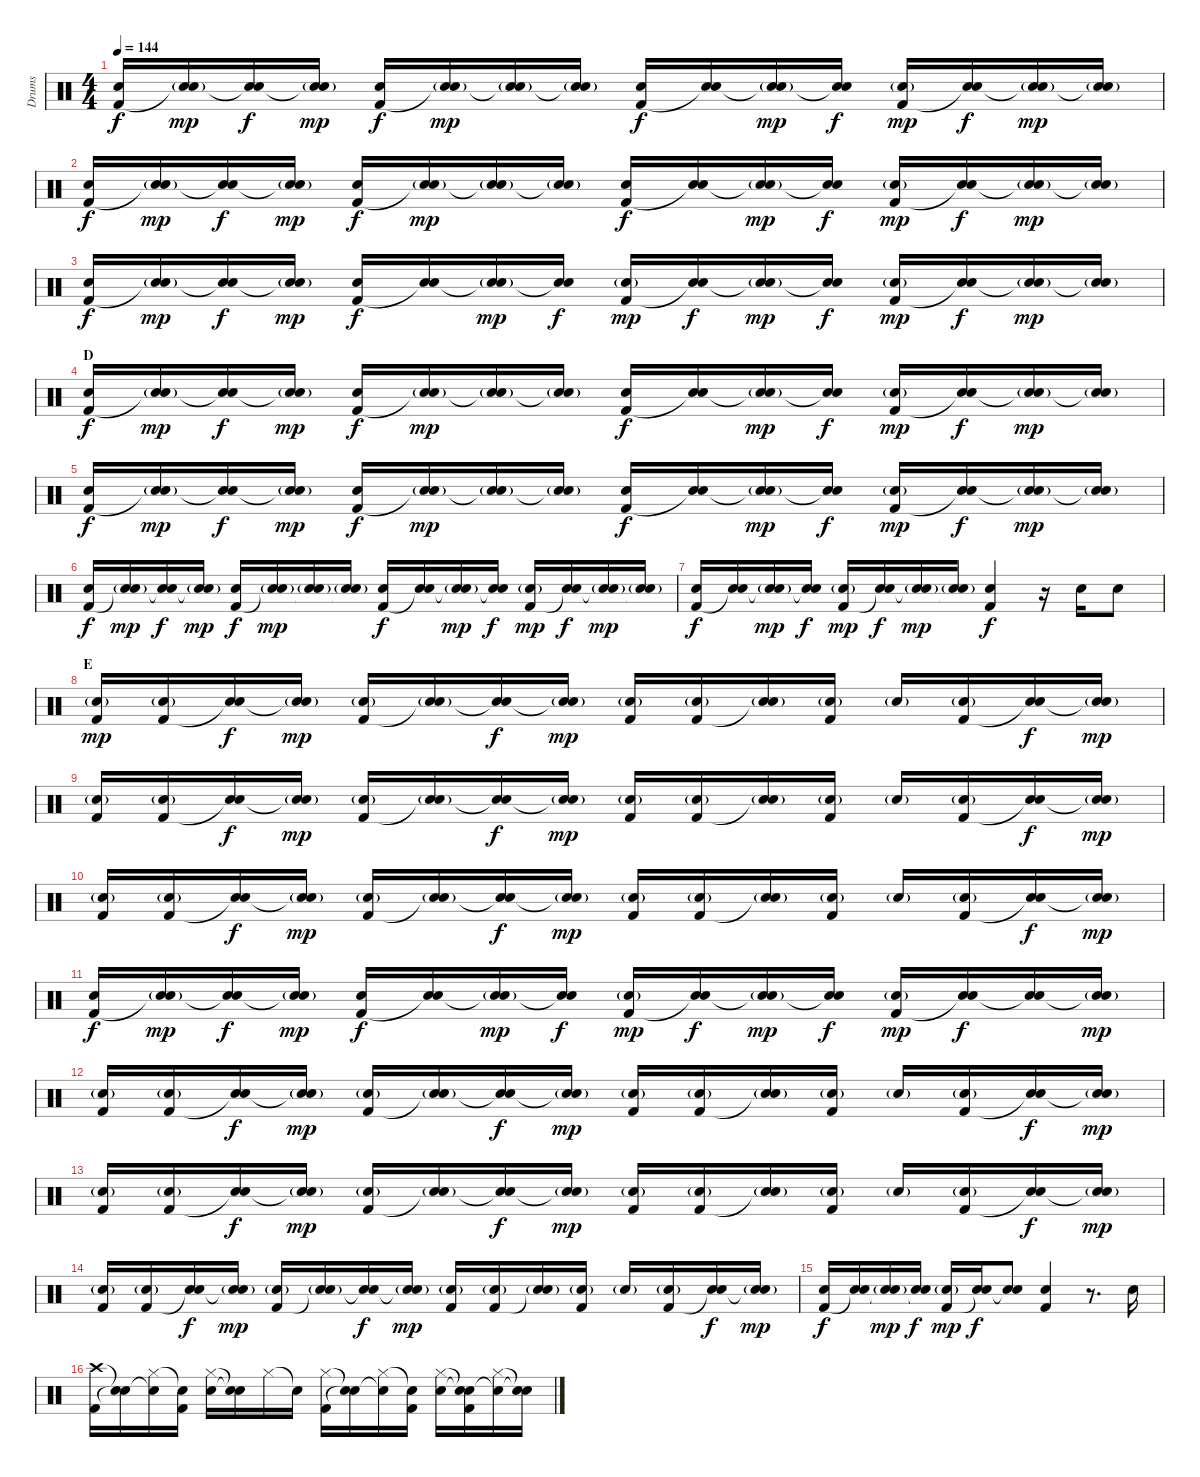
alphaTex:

\track ("Drums" "Drums") {instrument percussion}
\staff {score}
\articulation defaults
\ts (4 4)
\tempo 144
\clef neutral
\ks c
("Snare (hit) 2" "Kick (hit) 2").16{dy f} ("Snare (hit) 2"{g} "Snare (hit)"{t}).16{dy mp} ("Snare (hit) 2" "Snare (hit)"{t}).16{dy f} ("Snare (hit) 2"{g} "Snare (hit)"{t}).16{dy mp} ("Snare (hit) 2" "Kick (hit) 2").16{dy f} ("Snare (hit) 2"{g} "Snare (hit)"{t}).16{dy mp} ("Snare (hit) 2"{g} "Snare (hit)"{t}).16 ("Snare (hit) 2"{g} "Snare (hit)"{t}).16 ("Snare (hit) 2" "Kick (hit) 2").16{dy f} ("Snare (hit) 2" "Snare (hit)"{t}).16 ("Snare (hit) 2"{g} "Snare (hit)"{t}).16{dy mp} ("Snare (hit) 2" "Snare (hit)"{t}).16{dy f} ("Snare (hit) 2"{g} "Kick (hit) 2").16{dy mp} ("Snare (hit) 2" "Snare (hit)"{t}).16{dy f} ("Snare (hit) 2"{g} "Snare (hit)"{t}).16{dy mp} ("Snare (hit) 2"{g} "Snare (hit)"{t}).16 |
("Snare (hit) 2" "Kick (hit) 2").16{dy f} ("Snare (hit) 2"{g} "Snare (hit)"{t}).16{dy mp} ("Snare (hit) 2" "Snare (hit)"{t}).16{dy f} ("Snare (hit) 2"{g} "Snare (hit)"{t}).16{dy mp} ("Snare (hit) 2" "Kick (hit) 2").16{dy f} ("Snare (hit) 2"{g} "Snare (hit)"{t}).16{dy mp} ("Snare (hit) 2"{g} "Snare (hit)"{t}).16 ("Snare (hit) 2"{g} "Snare (hit)"{t}).16 ("Snare (hit) 2" "Kick (hit) 2").16{dy f} ("Snare (hit) 2" "Snare (hit)"{t}).16 ("Snare (hit) 2"{g} "Snare (hit)"{t}).16{dy mp} ("Snare (hit) 2" "Snare (hit)"{t}).16{dy f} ("Snare (hit) 2"{g} "Kick (hit) 2").16{dy mp} ("Snare (hit) 2" "Snare (hit)"{t}).16{dy f} ("Snare (hit) 2"{g} "Snare (hit)"{t}).16{dy mp} ("Snare (hit) 2"{g} "Snare (hit)"{t}).16 |
("Snare (hit) 2" "Kick (hit) 2").16{dy f} ("Snare (hit) 2"{g} "Snare (hit)"{t}).16{dy mp} ("Snare (hit) 2" "Snare (hit)"{t}).16{dy f} ("Snare (hit) 2"{g} "Snare (hit)"{t}).16{dy mp} ("Snare (hit) 2" "Kick (hit) 2").16{dy f} ("Snare (hit) 2" "Snare (hit)"{t}).16 ("Snare (hit) 2"{g} "Snare (hit)"{t}).16{dy mp} ("Snare (hit) 2" "Snare (hit)"{t}).16{dy f} ("Snare (hit) 2"{g} "Kick (hit) 2").16{dy mp} ("Snare (hit) 2" "Snare (hit)"{t}).16{dy f} ("Snare (hit) 2"{g} "Snare (hit)"{t}).16{dy mp} ("Snare (hit) 2" "Snare (hit)"{t}).16{dy f} ("Snare (hit) 2"{g} "Kick (hit) 2").16{dy mp} ("Snare (hit) 2" "Snare (hit)"{t}).16{dy f} ("Snare (hit) 2"{g} "Snare (hit)"{t}).16{dy mp} ("Snare (hit) 2"{g} "Snare (hit)"{t}).16 |
\section ("" "D")
("Snare (hit) 2" "Kick (hit) 2").16{dy f} ("Snare (hit) 2"{g} "Snare (hit)"{t}).16{dy mp} ("Snare (hit) 2" "Snare (hit)"{t}).16{dy f} ("Snare (hit) 2"{g} "Snare (hit)"{t}).16{dy mp} ("Snare (hit) 2" "Kick (hit) 2").16{dy f} ("Snare (hit) 2"{g} "Snare (hit)"{t}).16{dy mp} ("Snare (hit) 2"{g} "Snare (hit)"{t}).16 ("Snare (hit) 2"{g} "Snare (hit)"{t}).16 ("Snare (hit) 2" "Kick (hit) 2").16{dy f} ("Snare (hit) 2" "Snare (hit)"{t}).16 ("Snare (hit) 2"{g} "Snare (hit)"{t}).16{dy mp} ("Snare (hit) 2" "Snare (hit)"{t}).16{dy f} ("Snare (hit) 2"{g} "Kick (hit) 2").16{dy mp} ("Snare (hit) 2" "Snare (hit)"{t}).16{dy f} ("Snare (hit) 2"{g} "Snare (hit)"{t}).16{dy mp} ("Snare (hit) 2"{g} "Snare (hit)"{t}).16 |
("Snare (hit) 2" "Kick (hit) 2").16{dy f} ("Snare (hit) 2"{g} "Snare (hit)"{t}).16{dy mp} ("Snare (hit) 2" "Snare (hit)"{t}).16{dy f} ("Snare (hit) 2"{g} "Snare (hit)"{t}).16{dy mp} ("Snare (hit) 2" "Kick (hit) 2").16{dy f} ("Snare (hit) 2"{g} "Snare (hit)"{t}).16{dy mp} ("Snare (hit) 2"{g} "Snare (hit)"{t}).16 ("Snare (hit) 2"{g} "Snare (hit)"{t}).16 ("Snare (hit) 2" "Kick (hit) 2").16{dy f} ("Snare (hit) 2" "Snare (hit)"{t}).16 ("Snare (hit) 2"{g} "Snare (hit)"{t}).16{dy mp} ("Snare (hit) 2" "Snare (hit)"{t}).16{dy f} ("Snare (hit) 2"{g} "Kick (hit) 2").16{dy mp} ("Snare (hit) 2" "Snare (hit)"{t}).16{dy f} ("Snare (hit) 2"{g} "Snare (hit)"{t}).16{dy mp} ("Snare (hit) 2"{g} "Snare (hit)"{t}).16 |
("Snare (hit) 2" "Kick (hit) 2").16{dy f} ("Snare (hit) 2"{g} "Snare (hit)"{t}).16{dy mp} ("Snare (hit) 2" "Snare (hit)"{t}).16{dy f} ("Snare (hit) 2"{g} "Snare (hit)"{t}).16{dy mp} ("Snare (hit) 2" "Kick (hit) 2").16{dy f} ("Snare (hit) 2"{g} "Snare (hit)"{t}).16{dy mp} ("Snare (hit) 2"{g} "Snare (hit)"{t}).16 ("Snare (hit) 2"{g} "Snare (hit)"{t}).16 ("Snare (hit) 2" "Kick (hit) 2").16{dy f} ("Snare (hit) 2" "Snare (hit)"{t}).16 ("Snare (hit) 2"{g} "Snare (hit)"{t}).16{dy mp} ("Snare (hit) 2" "Snare (hit)"{t}).16{dy f} ("Snare (hit) 2"{g} "Kick (hit) 2").16{dy mp} ("Snare (hit) 2" "Snare (hit)"{t}).16{dy f} ("Snare (hit) 2"{g} "Snare (hit)"{t}).16{dy mp} ("Snare (hit) 2"{g} "Snare (hit)"{t}).16 |
("Snare (hit) 2" "Kick (hit) 2").16{dy f} ("Snare (hit) 2" "Snare (hit)"{t}).16 ("Snare (hit) 2"{g} "Snare (hit)"{t}).16{dy mp} ("Snare (hit) 2" "Snare (hit)"{t}).16{dy f} ("Snare (hit) 2"{g} "Kick (hit) 2").16{dy mp} ("Snare (hit) 2" "Snare (hit)"{t}).16{dy f} ("Snare (hit) 2"{g} "Snare (hit)"{t}).16{dy mp} ("Snare (hit) 2"{g} "Snare (hit)"{t}).16 ("Snare (hit) 2" "Kick (hit) 2").4{dy f} r.16 "Snare (hit) 2".16 "Snare (hit) 2".8 |
\section ("" "E")
("Snare (hit) 2"{g} "Kick (hit) 2").16{dy mp} ("Snare (hit) 2"{g} "Kick (hit) 2").16 ("Snare (hit) 2" "Snare (hit)"{t}).16{dy f} ("Snare (hit) 2"{g} "Snare (hit)"{t}).16{dy mp} ("Snare (hit) 2"{g} "Kick (hit) 2").16 ("Snare (hit) 2"{g} "Snare (hit)"{t}).16 ("Snare (hit) 2" "Snare (hit)"{t}).16{dy f} ("Snare (hit) 2"{g} "Snare (hit)"{t}).16{dy mp} ("Snare (hit) 2"{g} "Kick (hit) 2").16 ("Snare (hit) 2"{g} "Kick (hit) 2").16 ("Snare (hit) 2"{g} "Snare (hit)"{t}).16 ("Snare (hit) 2"{g} "Kick (hit) 2").16 "Snare (hit) 2"{g}.16 ("Snare (hit) 2"{g} "Kick (hit) 2").16 ("Snare (hit) 2" "Snare (hit)"{t}).16{dy f} ("Snare (hit) 2"{g} "Snare (hit)"{t}).16{dy mp} |
("Snare (hit) 2"{g} "Kick (hit) 2").16 ("Snare (hit) 2"{g} "Kick (hit) 2").16 ("Snare (hit) 2" "Snare (hit)"{t}).16{dy f} ("Snare (hit) 2"{g} "Snare (hit)"{t}).16{dy mp} ("Snare (hit) 2"{g} "Kick (hit) 2").16 ("Snare (hit) 2"{g} "Snare (hit)"{t}).16 ("Snare (hit) 2" "Snare (hit)"{t}).16{dy f} ("Snare (hit) 2"{g} "Snare (hit)"{t}).16{dy mp} ("Snare (hit) 2"{g} "Kick (hit) 2").16 ("Snare (hit) 2"{g} "Kick (hit) 2").16 ("Snare (hit) 2"{g} "Snare (hit)"{t}).16 ("Snare (hit) 2"{g} "Kick (hit) 2").16 "Snare (hit) 2"{g}.16 ("Snare (hit) 2"{g} "Kick (hit) 2").16 ("Snare (hit) 2" "Snare (hit)"{t}).16{dy f} ("Snare (hit) 2"{g} "Snare (hit)"{t}).16{dy mp} |
("Snare (hit) 2"{g} "Kick (hit) 2").16 ("Snare (hit) 2"{g} "Kick (hit) 2").16 ("Snare (hit) 2" "Snare (hit)"{t}).16{dy f} ("Snare (hit) 2"{g} "Snare (hit)"{t}).16{dy mp} ("Snare (hit) 2"{g} "Kick (hit) 2").16 ("Snare (hit) 2"{g} "Snare (hit)"{t}).16 ("Snare (hit) 2" "Snare (hit)"{t}).16{dy f} ("Snare (hit) 2"{g} "Snare (hit)"{t}).16{dy mp} ("Snare (hit) 2"{g} "Kick (hit) 2").16 ("Snare (hit) 2"{g} "Kick (hit) 2").16 ("Snare (hit) 2"{g} "Snare (hit)"{t}).16 ("Snare (hit) 2"{g} "Kick (hit) 2").16 "Snare (hit) 2"{g}.16 ("Snare (hit) 2"{g} "Kick (hit) 2").16 ("Snare (hit) 2" "Snare (hit)"{t}).16{dy f} ("Snare (hit) 2"{g} "Snare (hit)"{t}).16{dy mp} |
("Snare (hit) 2" "Kick (hit) 2").16{dy f} ("Snare (hit) 2"{g} "Snare (hit)"{t}).16{dy mp} ("Snare (hit) 2" "Snare (hit)"{t}).16{dy f} ("Snare (hit) 2"{g} "Snare (hit)"{t}).16{dy mp} ("Snare (hit) 2" "Kick (hit) 2").16{dy f} ("Snare (hit) 2" "Snare (hit)"{t}).16 ("Snare (hit) 2"{g} "Snare (hit)"{t}).16{dy mp} ("Snare (hit) 2" "Snare (hit)"{t}).16{dy f} ("Snare (hit) 2"{g} "Kick (hit) 2").16{dy mp} ("Snare (hit) 2" "Snare (hit)"{t}).16{dy f} ("Snare (hit) 2"{g} "Snare (hit)"{t}).16{dy mp} ("Snare (hit) 2" "Snare (hit)"{t}).16{dy f} ("Snare (hit) 2"{g} "Kick (hit) 2").16{dy mp} ("Snare (hit) 2" "Snare (hit)"{t}).16{dy f} ("Snare (hit) 2" "Snare (hit)"{t}).16 ("Snare (hit) 2"{g} "Snare (hit)"{t}).16{dy mp} |
("Snare (hit) 2"{g} "Kick (hit) 2").16 ("Snare (hit) 2"{g} "Kick (hit) 2").16 ("Snare (hit) 2" "Snare (hit)"{t}).16{dy f} ("Snare (hit) 2"{g} "Snare (hit)"{t}).16{dy mp} ("Snare (hit) 2"{g} "Kick (hit) 2").16 ("Snare (hit) 2"{g} "Snare (hit)"{t}).16 ("Snare (hit) 2" "Snare (hit)"{t}).16{dy f} ("Snare (hit) 2"{g} "Snare (hit)"{t}).16{dy mp} ("Snare (hit) 2"{g} "Kick (hit) 2").16 ("Snare (hit) 2"{g} "Kick (hit) 2").16 ("Snare (hit) 2"{g} "Snare (hit)"{t}).16 ("Snare (hit) 2"{g} "Kick (hit) 2").16 "Snare (hit) 2"{g}.16 ("Snare (hit) 2"{g} "Kick (hit) 2").16 ("Snare (hit) 2" "Snare (hit)"{t}).16{dy f} ("Snare (hit) 2"{g} "Snare (hit)"{t}).16{dy mp} |
("Snare (hit) 2"{g} "Kick (hit) 2").16 ("Snare (hit) 2"{g} "Kick (hit) 2").16 ("Snare (hit) 2" "Snare (hit)"{t}).16{dy f} ("Snare (hit) 2"{g} "Snare (hit)"{t}).16{dy mp} ("Snare (hit) 2"{g} "Kick (hit) 2").16 ("Snare (hit) 2"{g} "Snare (hit)"{t}).16 ("Snare (hit) 2" "Snare (hit)"{t}).16{dy f} ("Snare (hit) 2"{g} "Snare (hit)"{t}).16{dy mp} ("Snare (hit) 2"{g} "Kick (hit) 2").16 ("Snare (hit) 2"{g} "Kick (hit) 2").16 ("Snare (hit) 2"{g} "Snare (hit)"{t}).16 ("Snare (hit) 2"{g} "Kick (hit) 2").16 "Snare (hit) 2"{g}.16 ("Snare (hit) 2"{g} "Kick (hit) 2").16 ("Snare (hit) 2" "Snare (hit)"{t}).16{dy f} ("Snare (hit) 2"{g} "Snare (hit)"{t}).16{dy mp} |
("Snare (hit) 2"{g} "Kick (hit) 2").16 ("Snare (hit) 2"{g} "Kick (hit) 2").16 ("Snare (hit) 2" "Snare (hit)"{t}).16{dy f} ("Snare (hit) 2"{g} "Snare (hit)"{t}).16{dy mp} ("Snare (hit) 2"{g} "Kick (hit) 2").16 ("Snare (hit) 2"{g} "Snare (hit)"{t}).16 ("Snare (hit) 2" "Snare (hit)"{t}).16{dy f} ("Snare (hit) 2"{g} "Snare (hit)"{t}).16{dy mp} ("Snare (hit) 2"{g} "Kick (hit) 2").16 ("Snare (hit) 2"{g} "Kick (hit) 2").16 ("Snare (hit) 2"{g} "Snare (hit)"{t}).16 ("Snare (hit) 2"{g} "Kick (hit) 2").16 "Snare (hit) 2"{g}.16 ("Snare (hit) 2"{g} "Kick (hit) 2").16 ("Snare (hit) 2" "Snare (hit)"{t}).16{dy f} ("Snare (hit) 2"{g} "Snare (hit)"{t}).16{dy mp} |
("Snare (hit) 2" "Kick (hit) 2").16{dy f} ("Snare (hit) 2" "Snare (hit)"{t}).16 ("Snare (hit) 2"{g} "Snare (hit)"{t}).16{dy mp} ("Snare (hit) 2" "Snare (hit)"{t}).16{dy f} ("Snare (hit) 2"{g} "Kick (hit) 2").16{dy mp} ("Snare (hit) 2" "Snare (hit)"{t}).16{dy f} ("Snare (hit) 2" "Snare (hit)"{t}).8 ("Snare (hit) 2" "Kick (hit) 2").4 r.8{d} "Snare (hit) 2".16 |
("Crash high (hit)" "Kick (hit) 2").16 ("Snare (hit)"{t} "Snare (hit)"{t}).16 ("Hi-Hat (closed)" "Snare (hit)"{t}).16 ("Snare (hit)"{t} "Kick (hit) 2").16 ("Hi-Hat (closed)" "Snare (hit) 2").16 ("Snare (hit)"{t} "Snare (hit)"{t}).16 "Hi-Hat (closed)".16 "Snare (hit)"{t}.16 ("Hi-Hat (closed)" "Kick (hit) 2").16 ("Snare (hit)"{t} "Snare (hit)"{t}).16 ("Hi-Hat (closed)" "Snare (hit)"{t}).16 ("Snare (hit)"{t} "Kick (hit) 2").16 ("Hi-Hat (closed)" "Snare (hit) 2").16 ("Snare (hit)"{t} "Snare (hit)"{t} "Kick (hit) 2").16 ("Hi-Hat (closed)" "Snare (hit)"{t}).16 ("Snare (hit)"{t} "Snare (hit)"{t}).16
